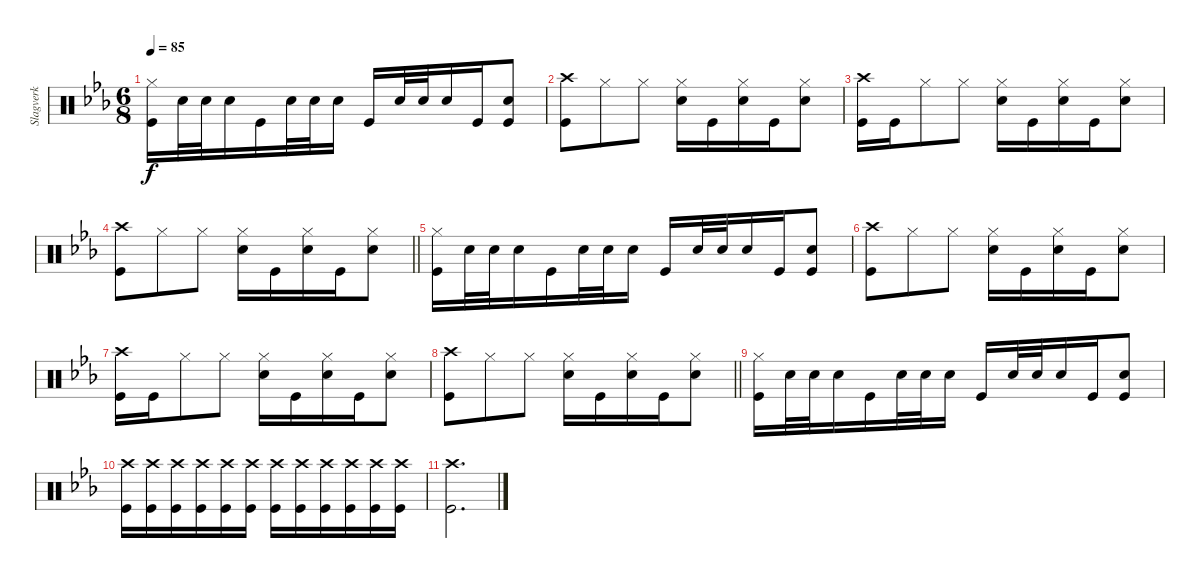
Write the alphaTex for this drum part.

\track ("Slagverk" "Slagverk") {instrument percussion}
\staff {score}
\articulation defaults
\ts (6 8)
\tempo 85
\clef neutral
\ks eb
("Hi-Hat (closed)" "Kick (hit)").16{dy f} "Snare (hit) 2".32 "Snare (hit) 2".32 "Snare (hit) 2".16 "Kick (hit)".16 "Snare (hit) 2".32 "Snare (hit) 2".32 "Snare (hit) 2".16 "Kick (hit)".16 "Snare (hit) 2".32 "Snare (hit) 2".32 "Snare (hit) 2".16 "Kick (hit)".16 ("Snare (hit) 2" "Kick (hit)").8 |
("Crash high (hit)" "Kick (hit)").8 "Hi-Hat (closed)".8 "Hi-Hat (closed)".8 ("Hi-Hat (closed)" "Snare (hit) 2").16 "Kick (hit)".16 ("Hi-Hat (closed)" "Snare (hit) 2").16 "Kick (hit)".16 ("Hi-Hat (closed)" "Snare (hit) 2").8 |
("Crash high (hit)" "Kick (hit)").16 "Kick (hit)".16 "Hi-Hat (closed)".8 "Hi-Hat (closed)".8 ("Hi-Hat (closed)" "Snare (hit) 2").16 "Kick (hit)".16 ("Hi-Hat (closed)" "Snare (hit) 2").16 "Kick (hit)".16 ("Hi-Hat (closed)" "Snare (hit) 2").8 |
\barLineRight lightlight
("Crash high (hit)" "Kick (hit)").8 "Hi-Hat (closed)".8 "Hi-Hat (closed)".8 ("Hi-Hat (closed)" "Snare (hit) 2").16 "Kick (hit)".16 ("Hi-Hat (closed)" "Snare (hit) 2").16 "Kick (hit)".16 ("Hi-Hat (closed)" "Snare (hit) 2").8 |
("Hi-Hat (closed)" "Kick (hit)").16 "Snare (hit) 2".32 "Snare (hit) 2".32 "Snare (hit) 2".16 "Kick (hit)".16 "Snare (hit) 2".32 "Snare (hit) 2".32 "Snare (hit) 2".16 "Kick (hit)".16 "Snare (hit) 2".32 "Snare (hit) 2".32 "Snare (hit) 2".16 "Kick (hit)".16 ("Snare (hit) 2" "Kick (hit)").8 |
("Crash high (hit)" "Kick (hit)").8 "Hi-Hat (closed)".8 "Hi-Hat (closed)".8 ("Hi-Hat (closed)" "Snare (hit) 2").16 "Kick (hit)".16 ("Hi-Hat (closed)" "Snare (hit) 2").16 "Kick (hit)".16 ("Hi-Hat (closed)" "Snare (hit) 2").8 |
("Crash high (hit)" "Kick (hit)").16 "Kick (hit)".16 "Hi-Hat (closed)".8 "Hi-Hat (closed)".8 ("Hi-Hat (closed)" "Snare (hit) 2").16 "Kick (hit)".16 ("Hi-Hat (closed)" "Snare (hit) 2").16 "Kick (hit)".16 ("Hi-Hat (closed)" "Snare (hit) 2").8 |
\barLineRight lightlight
("Crash high (hit)" "Kick (hit)").8 "Hi-Hat (closed)".8 "Hi-Hat (closed)".8 ("Hi-Hat (closed)" "Snare (hit) 2").16 "Kick (hit)".16 ("Hi-Hat (closed)" "Snare (hit) 2").16 "Kick (hit)".16 ("Hi-Hat (closed)" "Snare (hit) 2").8 |
("Hi-Hat (closed)" "Kick (hit)").16 "Snare (hit) 2".32 "Snare (hit) 2".32 "Snare (hit) 2".16 "Kick (hit)".16 "Snare (hit) 2".32 "Snare (hit) 2".32 "Snare (hit) 2".16 "Kick (hit)".16 "Snare (hit) 2".32 "Snare (hit) 2".32 "Snare (hit) 2".16 "Kick (hit)".16 ("Snare (hit) 2" "Kick (hit)").8 |
("Crash high (hit)" "Kick (hit)").16 ("Crash high (hit)" "Kick (hit)").16 ("Crash high (hit)" "Kick (hit)").16 ("Crash high (hit)" "Kick (hit)").16 ("Crash high (hit)" "Kick (hit)").16 ("Crash high (hit)" "Kick (hit)").16 ("Crash high (hit)" "Kick (hit)").16 ("Crash high (hit)" "Kick (hit)").16 ("Crash high (hit)" "Kick (hit)").16 ("Crash high (hit)" "Kick (hit)").16 ("Crash high (hit)" "Kick (hit)").16 ("Crash high (hit)" "Kick (hit)").16 |
("Crash high (hit)" "Kick (hit)").2{d}
